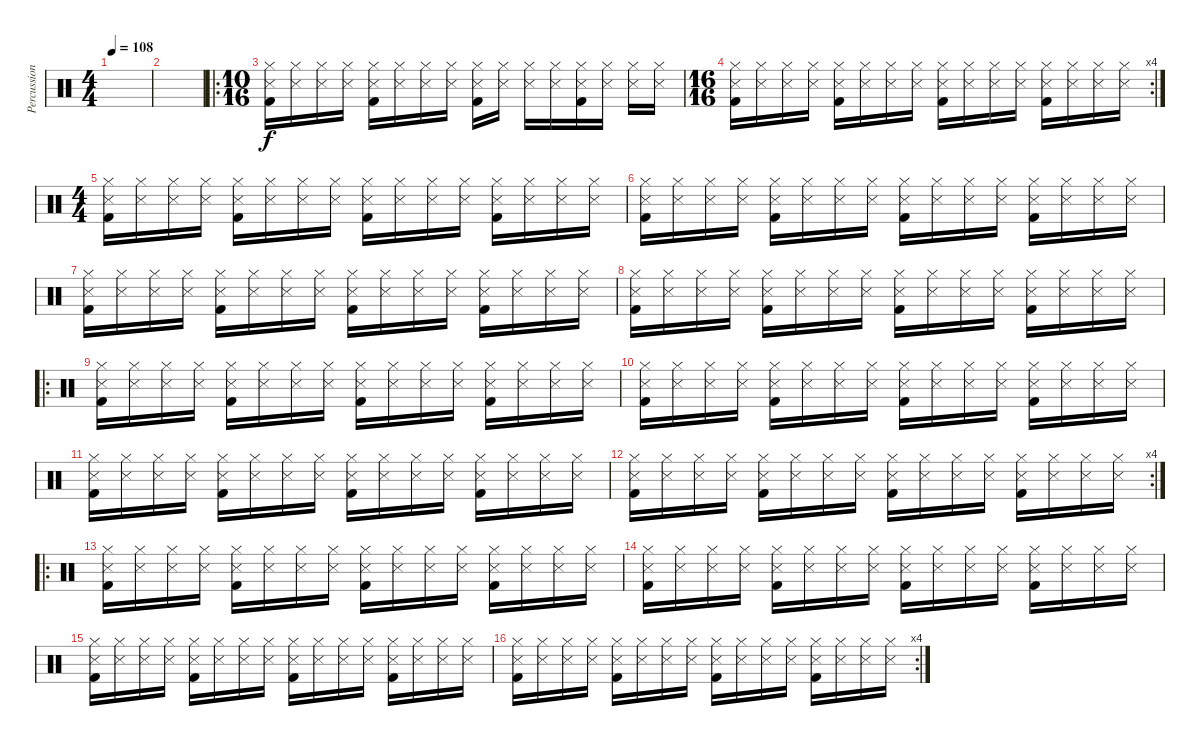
\track ("Percussions" "Percussion") {instrument percussion}
\staff {score}
\articulation defaults
\ts (4 4)
\tempo 108
\clef neutral
\ks c
|
|
\ro
\ts (10 16)
("Kick (hit) 2" "Hi-Hat (closed)" "Snare (side stick) 3").16 ("Hi-Hat (closed)" "Snare (side stick) 3").16 ("Hi-Hat (closed)" "Snare (side stick) 3").16 ("Hi-Hat (closed)" "Snare (side stick) 3").16 ("Kick (hit) 2" "Hi-Hat (closed)" "Snare (side stick) 3").16 ("Hi-Hat (closed)" "Snare (side stick) 3").16 ("Hi-Hat (closed)" "Snare (side stick) 3").16 ("Hi-Hat (closed)" "Snare (side stick) 3").16 ("Kick (hit) 2" "Hi-Hat (closed)" "Snare (side stick) 3").16 ("Hi-Hat (closed)" "Snare (side stick) 3").16 ("Hi-Hat (closed)" "Snare (side stick) 3").16 ("Hi-Hat (closed)" "Snare (side stick) 3").16 ("Kick (hit) 2" "Hi-Hat (closed)" "Snare (side stick) 3").16 ("Hi-Hat (closed)" "Snare (side stick) 3").16 ("Hi-Hat (closed)" "Snare (side stick) 3").16 ("Hi-Hat (closed)" "Snare (side stick) 3").16 |
\rc 4
\ts (16 16)
("Kick (hit) 2" "Hi-Hat (closed)" "Snare (side stick) 3").16 ("Hi-Hat (closed)" "Snare (side stick) 3").16 ("Hi-Hat (closed)" "Snare (side stick) 3").16 ("Hi-Hat (closed)" "Snare (side stick) 3").16 ("Kick (hit) 2" "Hi-Hat (closed)" "Snare (side stick) 3").16 ("Hi-Hat (closed)" "Snare (side stick) 3").16 ("Hi-Hat (closed)" "Snare (side stick) 3").16 ("Hi-Hat (closed)" "Snare (side stick) 3").16 ("Kick (hit) 2" "Hi-Hat (closed)" "Snare (side stick) 3").16 ("Hi-Hat (closed)" "Snare (side stick) 3").16 ("Hi-Hat (closed)" "Snare (side stick) 3").16 ("Hi-Hat (closed)" "Snare (side stick) 3").16 ("Kick (hit) 2" "Hi-Hat (closed)" "Snare (side stick) 3").16 ("Hi-Hat (closed)" "Snare (side stick) 3").16 ("Hi-Hat (closed)" "Snare (side stick) 3").16 ("Hi-Hat (closed)" "Snare (side stick) 3").16 |
\ts (4 4)
("Kick (hit) 2" "Hi-Hat (closed)" "Snare (side stick) 3").16 ("Hi-Hat (closed)" "Snare (side stick) 3").16 ("Hi-Hat (closed)" "Snare (side stick) 3").16 ("Hi-Hat (closed)" "Snare (side stick) 3").16 ("Kick (hit) 2" "Hi-Hat (closed)" "Snare (side stick) 3").16 ("Hi-Hat (closed)" "Snare (side stick) 3").16 ("Hi-Hat (closed)" "Snare (side stick) 3").16 ("Hi-Hat (closed)" "Snare (side stick) 3").16 ("Kick (hit) 2" "Hi-Hat (closed)" "Snare (side stick) 3").16 ("Hi-Hat (closed)" "Snare (side stick) 3").16 ("Hi-Hat (closed)" "Snare (side stick) 3").16 ("Hi-Hat (closed)" "Snare (side stick) 3").16 ("Kick (hit) 2" "Hi-Hat (closed)" "Snare (side stick) 3").16 ("Hi-Hat (closed)" "Snare (side stick) 3").16 ("Hi-Hat (closed)" "Snare (side stick) 3").16 ("Hi-Hat (closed)" "Snare (side stick) 3").16 |
("Kick (hit) 2" "Hi-Hat (closed)" "Snare (side stick) 3").16 ("Hi-Hat (closed)" "Snare (side stick) 3").16 ("Hi-Hat (closed)" "Snare (side stick) 3").16 ("Hi-Hat (closed)" "Snare (side stick) 3").16 ("Kick (hit) 2" "Hi-Hat (closed)" "Snare (side stick) 3").16 ("Hi-Hat (closed)" "Snare (side stick) 3").16 ("Hi-Hat (closed)" "Snare (side stick) 3").16 ("Hi-Hat (closed)" "Snare (side stick) 3").16 ("Kick (hit) 2" "Hi-Hat (closed)" "Snare (side stick) 3").16 ("Hi-Hat (closed)" "Snare (side stick) 3").16 ("Hi-Hat (closed)" "Snare (side stick) 3").16 ("Hi-Hat (closed)" "Snare (side stick) 3").16 ("Kick (hit) 2" "Hi-Hat (closed)" "Snare (side stick) 3").16 ("Hi-Hat (closed)" "Snare (side stick) 3").16 ("Hi-Hat (closed)" "Snare (side stick) 3").16 ("Hi-Hat (closed)" "Snare (side stick) 3").16 |
("Kick (hit) 2" "Hi-Hat (closed)" "Snare (side stick) 3").16 ("Hi-Hat (closed)" "Snare (side stick) 3").16 ("Hi-Hat (closed)" "Snare (side stick) 3").16 ("Hi-Hat (closed)" "Snare (side stick) 3").16 ("Kick (hit) 2" "Hi-Hat (closed)" "Snare (side stick) 3").16 ("Hi-Hat (closed)" "Snare (side stick) 3").16 ("Hi-Hat (closed)" "Snare (side stick) 3").16 ("Hi-Hat (closed)" "Snare (side stick) 3").16 ("Kick (hit) 2" "Hi-Hat (closed)" "Snare (side stick) 3").16 ("Hi-Hat (closed)" "Snare (side stick) 3").16 ("Hi-Hat (closed)" "Snare (side stick) 3").16 ("Hi-Hat (closed)" "Snare (side stick) 3").16 ("Kick (hit) 2" "Hi-Hat (closed)" "Snare (side stick) 3").16 ("Hi-Hat (closed)" "Snare (side stick) 3").16 ("Hi-Hat (closed)" "Snare (side stick) 3").16 ("Hi-Hat (closed)" "Snare (side stick) 3").16 |
("Kick (hit) 2" "Hi-Hat (closed)" "Snare (side stick) 3").16 ("Hi-Hat (closed)" "Snare (side stick) 3").16 ("Hi-Hat (closed)" "Snare (side stick) 3").16 ("Hi-Hat (closed)" "Snare (side stick) 3").16 ("Kick (hit) 2" "Hi-Hat (closed)" "Snare (side stick) 3").16 ("Hi-Hat (closed)" "Snare (side stick) 3").16 ("Hi-Hat (closed)" "Snare (side stick) 3").16 ("Hi-Hat (closed)" "Snare (side stick) 3").16 ("Kick (hit) 2" "Hi-Hat (closed)" "Snare (side stick) 3").16 ("Hi-Hat (closed)" "Snare (side stick) 3").16 ("Hi-Hat (closed)" "Snare (side stick) 3").16 ("Hi-Hat (closed)" "Snare (side stick) 3").16 ("Kick (hit) 2" "Hi-Hat (closed)" "Snare (side stick) 3").16 ("Hi-Hat (closed)" "Snare (side stick) 3").16 ("Hi-Hat (closed)" "Snare (side stick) 3").16 ("Hi-Hat (closed)" "Snare (side stick) 3").16 |
\ro
("Kick (hit) 2" "Hi-Hat (closed)" "Snare (side stick) 3").16 ("Hi-Hat (closed)" "Snare (side stick) 3").16 ("Hi-Hat (closed)" "Snare (side stick) 3").16 ("Hi-Hat (closed)" "Snare (side stick) 3").16 ("Kick (hit) 2" "Hi-Hat (closed)" "Snare (side stick) 3").16 ("Hi-Hat (closed)" "Snare (side stick) 3").16 ("Hi-Hat (closed)" "Snare (side stick) 3").16 ("Hi-Hat (closed)" "Snare (side stick) 3").16 ("Kick (hit) 2" "Hi-Hat (closed)" "Snare (side stick) 3").16 ("Hi-Hat (closed)" "Snare (side stick) 3").16 ("Hi-Hat (closed)" "Snare (side stick) 3").16 ("Hi-Hat (closed)" "Snare (side stick) 3").16 ("Kick (hit) 2" "Hi-Hat (closed)" "Snare (side stick) 3").16 ("Hi-Hat (closed)" "Snare (side stick) 3").16 ("Hi-Hat (closed)" "Snare (side stick) 3").16 ("Hi-Hat (closed)" "Snare (side stick) 3").16 |
("Kick (hit) 2" "Hi-Hat (closed)" "Snare (side stick) 3").16 ("Hi-Hat (closed)" "Snare (side stick) 3").16 ("Hi-Hat (closed)" "Snare (side stick) 3").16 ("Hi-Hat (closed)" "Snare (side stick) 3").16 ("Kick (hit) 2" "Hi-Hat (closed)" "Snare (side stick) 3").16 ("Hi-Hat (closed)" "Snare (side stick) 3").16 ("Hi-Hat (closed)" "Snare (side stick) 3").16 ("Hi-Hat (closed)" "Snare (side stick) 3").16 ("Kick (hit) 2" "Hi-Hat (closed)" "Snare (side stick) 3").16 ("Hi-Hat (closed)" "Snare (side stick) 3").16 ("Hi-Hat (closed)" "Snare (side stick) 3").16 ("Hi-Hat (closed)" "Snare (side stick) 3").16 ("Kick (hit) 2" "Hi-Hat (closed)" "Snare (side stick) 3").16 ("Hi-Hat (closed)" "Snare (side stick) 3").16 ("Hi-Hat (closed)" "Snare (side stick) 3").16 ("Hi-Hat (closed)" "Snare (side stick) 3").16 |
("Kick (hit) 2" "Hi-Hat (closed)" "Snare (side stick) 3").16 ("Hi-Hat (closed)" "Snare (side stick) 3").16 ("Hi-Hat (closed)" "Snare (side stick) 3").16 ("Hi-Hat (closed)" "Snare (side stick) 3").16 ("Kick (hit) 2" "Hi-Hat (closed)" "Snare (side stick) 3").16 ("Hi-Hat (closed)" "Snare (side stick) 3").16 ("Hi-Hat (closed)" "Snare (side stick) 3").16 ("Hi-Hat (closed)" "Snare (side stick) 3").16 ("Kick (hit) 2" "Hi-Hat (closed)" "Snare (side stick) 3").16 ("Hi-Hat (closed)" "Snare (side stick) 3").16 ("Hi-Hat (closed)" "Snare (side stick) 3").16 ("Hi-Hat (closed)" "Snare (side stick) 3").16 ("Kick (hit) 2" "Hi-Hat (closed)" "Snare (side stick) 3").16 ("Hi-Hat (closed)" "Snare (side stick) 3").16 ("Hi-Hat (closed)" "Snare (side stick) 3").16 ("Hi-Hat (closed)" "Snare (side stick) 3").16 |
\rc 4
("Kick (hit) 2" "Hi-Hat (closed)" "Snare (side stick) 3").16 ("Hi-Hat (closed)" "Snare (side stick) 3").16 ("Hi-Hat (closed)" "Snare (side stick) 3").16 ("Hi-Hat (closed)" "Snare (side stick) 3").16 ("Kick (hit) 2" "Hi-Hat (closed)" "Snare (side stick) 3").16 ("Hi-Hat (closed)" "Snare (side stick) 3").16 ("Hi-Hat (closed)" "Snare (side stick) 3").16 ("Hi-Hat (closed)" "Snare (side stick) 3").16 ("Kick (hit) 2" "Hi-Hat (closed)" "Snare (side stick) 3").16 ("Hi-Hat (closed)" "Snare (side stick) 3").16 ("Hi-Hat (closed)" "Snare (side stick) 3").16 ("Hi-Hat (closed)" "Snare (side stick) 3").16 ("Kick (hit) 2" "Hi-Hat (closed)" "Snare (side stick) 3").16 ("Hi-Hat (closed)" "Snare (side stick) 3").16 ("Hi-Hat (closed)" "Snare (side stick) 3").16 ("Hi-Hat (closed)" "Snare (side stick) 3").16 |
\ro
("Kick (hit) 2" "Hi-Hat (closed)" "Snare (side stick) 3").16 ("Hi-Hat (closed)" "Snare (side stick) 3").16 ("Hi-Hat (closed)" "Snare (side stick) 3").16 ("Hi-Hat (closed)" "Snare (side stick) 3").16 ("Kick (hit) 2" "Hi-Hat (closed)" "Snare (side stick) 3").16 ("Hi-Hat (closed)" "Snare (side stick) 3").16 ("Hi-Hat (closed)" "Snare (side stick) 3").16 ("Hi-Hat (closed)" "Snare (side stick) 3").16 ("Kick (hit) 2" "Hi-Hat (closed)" "Snare (side stick) 3").16 ("Hi-Hat (closed)" "Snare (side stick) 3").16 ("Hi-Hat (closed)" "Snare (side stick) 3").16 ("Hi-Hat (closed)" "Snare (side stick) 3").16 ("Kick (hit) 2" "Hi-Hat (closed)" "Snare (side stick) 3").16 ("Hi-Hat (closed)" "Snare (side stick) 3").16 ("Hi-Hat (closed)" "Snare (side stick) 3").16 ("Hi-Hat (closed)" "Snare (side stick) 3").16 |
("Kick (hit) 2" "Hi-Hat (closed)" "Snare (side stick) 3").16 ("Hi-Hat (closed)" "Snare (side stick) 3").16 ("Hi-Hat (closed)" "Snare (side stick) 3").16 ("Hi-Hat (closed)" "Snare (side stick) 3").16 ("Kick (hit) 2" "Hi-Hat (closed)" "Snare (side stick) 3").16 ("Hi-Hat (closed)" "Snare (side stick) 3").16 ("Hi-Hat (closed)" "Snare (side stick) 3").16 ("Hi-Hat (closed)" "Snare (side stick) 3").16 ("Kick (hit) 2" "Hi-Hat (closed)" "Snare (side stick) 3").16 ("Hi-Hat (closed)" "Snare (side stick) 3").16 ("Hi-Hat (closed)" "Snare (side stick) 3").16 ("Hi-Hat (closed)" "Snare (side stick) 3").16 ("Kick (hit) 2" "Hi-Hat (closed)" "Snare (side stick) 3").16 ("Hi-Hat (closed)" "Snare (side stick) 3").16 ("Hi-Hat (closed)" "Snare (side stick) 3").16 ("Hi-Hat (closed)" "Snare (side stick) 3").16 |
("Kick (hit) 2" "Hi-Hat (closed)" "Snare (side stick) 3").16 ("Hi-Hat (closed)" "Snare (side stick) 3").16 ("Hi-Hat (closed)" "Snare (side stick) 3").16 ("Hi-Hat (closed)" "Snare (side stick) 3").16 ("Kick (hit) 2" "Hi-Hat (closed)" "Snare (side stick) 3").16 ("Hi-Hat (closed)" "Snare (side stick) 3").16 ("Hi-Hat (closed)" "Snare (side stick) 3").16 ("Hi-Hat (closed)" "Snare (side stick) 3").16 ("Kick (hit) 2" "Hi-Hat (closed)" "Snare (side stick) 3").16 ("Hi-Hat (closed)" "Snare (side stick) 3").16 ("Hi-Hat (closed)" "Snare (side stick) 3").16 ("Hi-Hat (closed)" "Snare (side stick) 3").16 ("Kick (hit) 2" "Hi-Hat (closed)" "Snare (side stick) 3").16 ("Hi-Hat (closed)" "Snare (side stick) 3").16 ("Hi-Hat (closed)" "Snare (side stick) 3").16 ("Hi-Hat (closed)" "Snare (side stick) 3").16 |
\rc 4
("Kick (hit) 2" "Hi-Hat (closed)" "Snare (side stick) 3").16 ("Hi-Hat (closed)" "Snare (side stick) 3").16 ("Hi-Hat (closed)" "Snare (side stick) 3").16 ("Hi-Hat (closed)" "Snare (side stick) 3").16 ("Kick (hit) 2" "Hi-Hat (closed)" "Snare (side stick) 3").16 ("Hi-Hat (closed)" "Snare (side stick) 3").16 ("Hi-Hat (closed)" "Snare (side stick) 3").16 ("Hi-Hat (closed)" "Snare (side stick) 3").16 ("Kick (hit) 2" "Hi-Hat (closed)" "Snare (side stick) 3").16 ("Hi-Hat (closed)" "Snare (side stick) 3").16 ("Hi-Hat (closed)" "Snare (side stick) 3").16 ("Hi-Hat (closed)" "Snare (side stick) 3").16 ("Kick (hit) 2" "Hi-Hat (closed)" "Snare (side stick) 3").16 ("Hi-Hat (closed)" "Snare (side stick) 3").16 ("Hi-Hat (closed)" "Snare (side stick) 3").16 ("Hi-Hat (closed)" "Snare (side stick) 3").16
